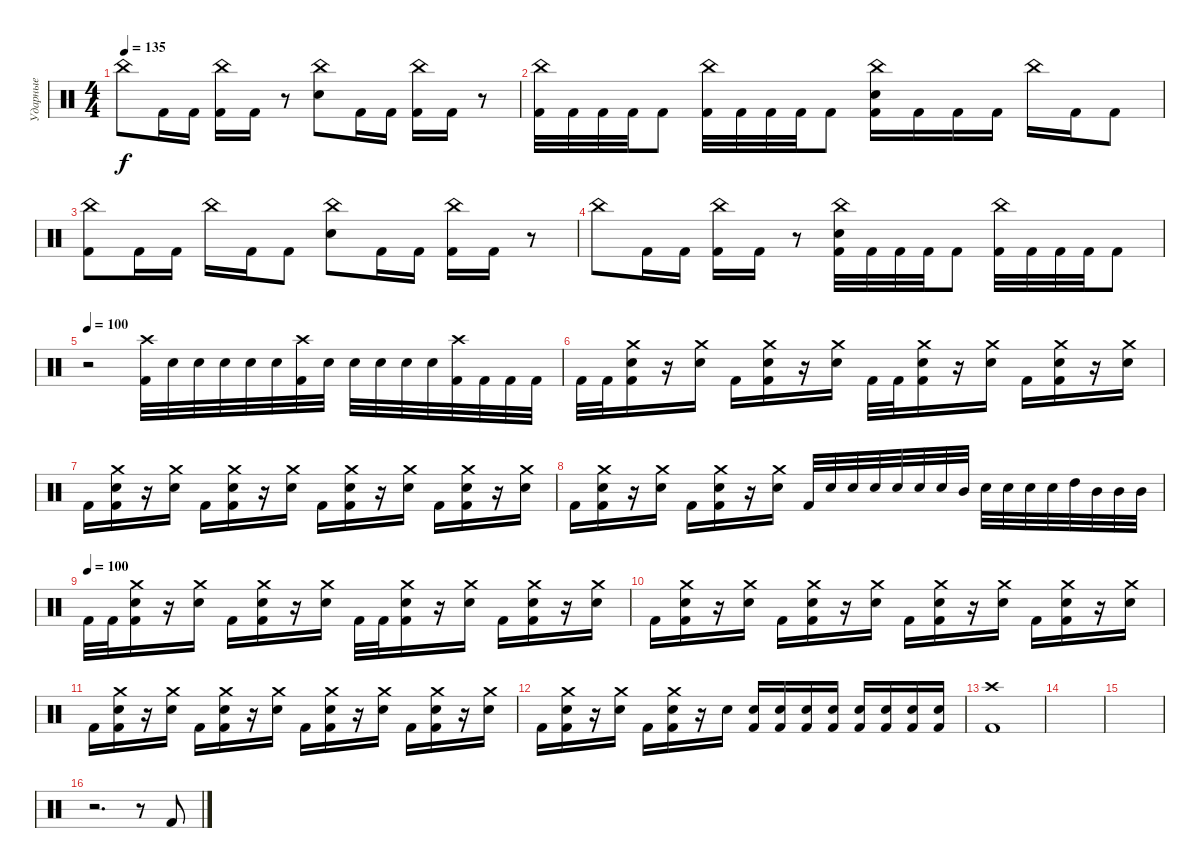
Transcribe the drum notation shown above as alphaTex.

\track ("Ударные" "Ударные") {instrument percussion}
\staff
\articulation defaults
\ts (4 4)
\tempo 135
\clef neutral
\ks c "China (hit)".8{dy f} "Kick (hit) 2".16 "Kick (hit) 2".16
("China (hit)" "Kick (hit) 2").16 "Kick (hit) 2".16 r.8 ("China (hit)" "Electric Snare (hit)").8 "Kick (hit) 2".16 "Kick (hit) 2".16 ("China (hit)" "Kick (hit) 2").16 "Kick (hit) 2".16 r.8 |
("China (hit)" "Kick (hit) 2").32 "Kick (hit) 2".32 "Kick (hit) 2".32 "Kick (hit) 2".32 "Kick (hit) 2".8 ("China (hit)" "Kick (hit) 2").32 "Kick (hit) 2".32 "Kick (hit) 2".32 "Kick (hit) 2".32 "Kick (hit) 2".8 ("China (hit)" "Electric Snare (hit)" "Kick (hit) 2").16 "Kick (hit) 2".16 "Kick (hit) 2".16 "Kick (hit) 2".16 "China (hit)".16 "Kick (hit) 2".16 "Kick (hit) 2".8 |
("China (hit)" "Kick (hit) 2").8 "Kick (hit) 2".16 "Kick (hit) 2".16 "China (hit)".16 "Kick (hit) 2".16 "Kick (hit) 2".8 ("China (hit)" "Electric Snare (hit)").8 "Kick (hit) 2".16 "Kick (hit) 2".16 ("China (hit)" "Kick (hit) 2").16 "Kick (hit) 2".16 r.8 |
"China (hit)".8 "Kick (hit) 2".16 "Kick (hit) 2".16 ("China (hit)" "Kick (hit) 2").16 "Kick (hit) 2".16 r.8 ("China (hit)" "Electric Snare (hit)" "Kick (hit) 2").32 "Kick (hit) 2".32 "Kick (hit) 2".32 "Kick (hit) 2".32 "Kick (hit) 2".8 ("China (hit)" "Kick (hit) 2").32 "Kick (hit) 2".32 "Kick (hit) 2".32 "Kick (hit) 2".32 "Kick (hit) 2".8 |
\tempo 100
r.2 ("Crash high (hit)" "Kick (hit) 2").32 "Electric Snare (hit)".32 "Electric Snare (hit)".32 "Electric Snare (hit)".32 "Electric Snare (hit)".32 "Electric Snare (hit)".32 ("Crash high (hit)" "Kick (hit) 2").32 "Electric Snare (hit)".32 "Electric Snare (hit)".32 "Electric Snare (hit)".32 "Electric Snare (hit)".32 "Electric Snare (hit)".32 ("Crash high (hit)" "Kick (hit) 2").32 "Kick (hit) 2".32 "Kick (hit) 2".32 "Kick (hit) 2".32 |
"Kick (hit) 2".32 "Kick (hit) 2".32 ("Crash medium (hit)" "Electric Snare (hit)" "Kick (hit) 2").16 r.16 ("Crash medium (hit)" "Electric Snare (hit)").16 "Kick (hit) 2".16 ("Crash medium (hit)" "Electric Snare (hit)" "Kick (hit) 2").16 r.16 ("Crash medium (hit)" "Electric Snare (hit)").16 "Kick (hit) 2".32 "Kick (hit) 2".32 ("Crash medium (hit)" "Electric Snare (hit)" "Kick (hit) 2").16 r.16 ("Crash medium (hit)" "Electric Snare (hit)").16 "Kick (hit) 2".16 ("Crash medium (hit)" "Electric Snare (hit)" "Kick (hit) 2").16 r.16 ("Crash medium (hit)" "Electric Snare (hit)").16 |
"Kick (hit) 2".16 ("Crash medium (hit)" "Electric Snare (hit)" "Kick (hit) 2").16 r.16 ("Crash medium (hit)" "Electric Snare (hit)").16 "Kick (hit) 2".16 ("Crash medium (hit)" "Electric Snare (hit)" "Kick (hit) 2").16 r.16 ("Crash medium (hit)" "Electric Snare (hit)").16 "Kick (hit) 2".16 ("Crash medium (hit)" "Electric Snare (hit)" "Kick (hit) 2").16 r.16 ("Crash medium (hit)" "Electric Snare (hit)").16 "Kick (hit) 2".16 ("Crash medium (hit)" "Electric Snare (hit)" "Kick (hit) 2").16 r.16 ("Crash medium (hit)" "Electric Snare (hit)").16 |
"Kick (hit) 2".16 ("Crash medium (hit)" "Electric Snare (hit)" "Kick (hit) 2").16 r.16 ("Crash medium (hit)" "Electric Snare (hit)").16 "Kick (hit) 2".16 ("Crash medium (hit)" "Electric Snare (hit)" "Kick (hit) 2").16 r.16 ("Crash medium (hit)" "Electric Snare (hit)").16 "Kick (hit) 2".32 "Electric Snare (hit)".32 "Electric Snare (hit)".32 "Electric Snare (hit)".32 "Electric Snare (hit)".32 "Electric Snare (hit)".32 "Electric Snare (hit)".32 "Mid Tom (hit)".32 "Electric Snare (hit)".32 "Electric Snare (hit)".32 "Electric Snare (hit)".32 "Electric Snare (hit)".32 "High Tom (hit)".32 "Mid Tom (hit)".32 "Mid Tom (hit)".32 "Mid Tom (hit)".32 |
\tempo (100)
"Kick (hit) 2".32 "Kick (hit) 2".32 ("Crash medium (hit)" "Electric Snare (hit)" "Kick (hit) 2").16 r.16 ("Crash medium (hit)" "Electric Snare (hit)").16 "Kick (hit) 2".16 ("Crash medium (hit)" "Electric Snare (hit)" "Kick (hit) 2").16 r.16 ("Crash medium (hit)" "Electric Snare (hit)").16 "Kick (hit) 2".32 "Kick (hit) 2".32 ("Crash medium (hit)" "Electric Snare (hit)" "Kick (hit) 2").16 r.16 ("Crash medium (hit)" "Electric Snare (hit)").16 "Kick (hit) 2".16 ("Crash medium (hit)" "Electric Snare (hit)" "Kick (hit) 2").16 r.16 ("Crash medium (hit)" "Electric Snare (hit)").16 |
"Kick (hit) 2".16 ("Crash medium (hit)" "Electric Snare (hit)" "Kick (hit) 2").16 r.16 ("Crash medium (hit)" "Electric Snare (hit)").16 "Kick (hit) 2".16 ("Crash medium (hit)" "Electric Snare (hit)" "Kick (hit) 2").16 r.16 ("Crash medium (hit)" "Electric Snare (hit)").16 "Kick (hit) 2".16 ("Crash medium (hit)" "Electric Snare (hit)" "Kick (hit) 2").16 r.16 ("Crash medium (hit)" "Electric Snare (hit)").16 "Kick (hit) 2".16 ("Crash medium (hit)" "Electric Snare (hit)" "Kick (hit) 2").16 r.16 ("Crash medium (hit)" "Electric Snare (hit)").16 |
"Kick (hit) 2".16 ("Crash medium (hit)" "Electric Snare (hit)" "Kick (hit) 2").16 r.16 ("Crash medium (hit)" "Electric Snare (hit)").16 "Kick (hit) 2".16 ("Crash medium (hit)" "Electric Snare (hit)" "Kick (hit) 2").16 r.16 ("Crash medium (hit)" "Electric Snare (hit)").16 "Kick (hit) 2".16 ("Crash medium (hit)" "Electric Snare (hit)" "Kick (hit) 2").16 r.16 ("Crash medium (hit)" "Electric Snare (hit)").16 "Kick (hit) 2".16 ("Crash medium (hit)" "Electric Snare (hit)" "Kick (hit) 2").16 r.16 ("Crash medium (hit)" "Electric Snare (hit)").16 |
"Kick (hit) 2".16 ("Crash medium (hit)" "Electric Snare (hit)" "Kick (hit) 2").16 r.16 ("Crash medium (hit)" "Electric Snare (hit)").16 "Kick (hit) 2".16 ("Crash medium (hit)" "Electric Snare (hit)" "Kick (hit) 2").16 r.16 "Electric Snare (hit)".16 ("Electric Snare (hit)" "Kick (hit) 2").16 ("Electric Snare (hit)" "Kick (hit) 2").16 ("Electric Snare (hit)" "Kick (hit) 2").16 ("Electric Snare (hit)" "Kick (hit) 2").16 ("Electric Snare (hit)" "Kick (hit) 2").16 ("Electric Snare (hit)" "Kick (hit) 2").16 ("Electric Snare (hit)" "Kick (hit) 2").16 ("Electric Snare (hit)" "Kick (hit) 2").16 |
("Crash high (hit)" "Kick (hit) 2").1 |
|
|
r.2{d} r.8 "Kick (hit) 2".8
